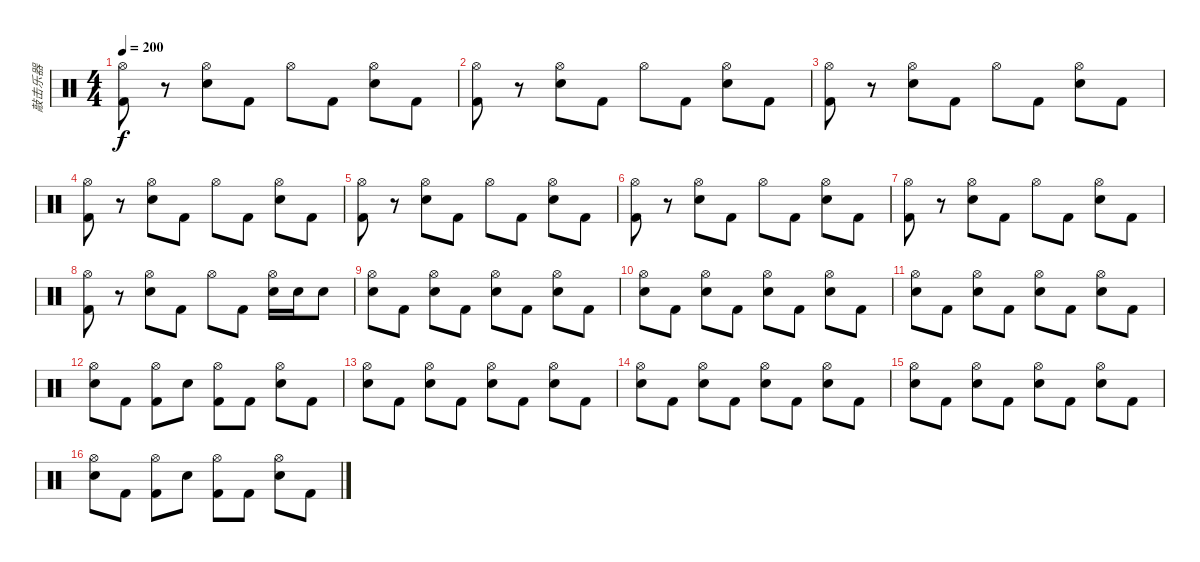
\track ("敲击乐器" "敲击乐器") {instrument percussion}
\staff {score}
\articulation defaults
\ts (4 4)
\tempo 200
\clef neutral
\ks c
("Hi-Hat (open)" "Kick (hit) 2").8{dy f} r.8 ("Hi-Hat (open)" "Electric Snare (hit)").8 "Kick (hit) 2".8 "Hi-Hat (open)".8 "Kick (hit) 2".8 ("Hi-Hat (open)" "Electric Snare (hit)").8 "Kick (hit) 2".8 |
("Hi-Hat (open)" "Kick (hit) 2").8 r.8 ("Hi-Hat (open)" "Electric Snare (hit)").8 "Kick (hit) 2".8 "Hi-Hat (open)".8 "Kick (hit) 2".8 ("Hi-Hat (open)" "Electric Snare (hit)").8 "Kick (hit) 2".8 |
("Hi-Hat (open)" "Kick (hit) 2").8 r.8 ("Hi-Hat (open)" "Electric Snare (hit)").8 "Kick (hit) 2".8 "Hi-Hat (open)".8 "Kick (hit) 2".8 ("Hi-Hat (open)" "Electric Snare (hit)").8 "Kick (hit) 2".8 |
("Hi-Hat (open)" "Kick (hit) 2").8 r.8 ("Hi-Hat (open)" "Electric Snare (hit)").8 "Kick (hit) 2".8 "Hi-Hat (open)".8 "Kick (hit) 2".8 ("Hi-Hat (open)" "Electric Snare (hit)").8 "Kick (hit) 2".8 |
("Hi-Hat (open)" "Kick (hit) 2").8 r.8 ("Hi-Hat (open)" "Electric Snare (hit)").8 "Kick (hit) 2".8 "Hi-Hat (open)".8 "Kick (hit) 2".8 ("Hi-Hat (open)" "Electric Snare (hit)").8 "Kick (hit) 2".8 |
("Hi-Hat (open)" "Kick (hit) 2").8 r.8 ("Hi-Hat (open)" "Electric Snare (hit)").8 "Kick (hit) 2".8 "Hi-Hat (open)".8 "Kick (hit) 2".8 ("Hi-Hat (open)" "Electric Snare (hit)").8 "Kick (hit) 2".8 |
("Hi-Hat (open)" "Kick (hit) 2").8 r.8 ("Hi-Hat (open)" "Electric Snare (hit)").8 "Kick (hit) 2".8 "Hi-Hat (open)".8 "Kick (hit) 2".8 ("Hi-Hat (open)" "Electric Snare (hit)").8 "Kick (hit) 2".8 |
("Hi-Hat (open)" "Kick (hit) 2").8 r.8 ("Hi-Hat (open)" "Electric Snare (hit)").8 "Kick (hit) 2".8 "Hi-Hat (open)".8 "Kick (hit) 2".8 ("Hi-Hat (open)" "Electric Snare (hit)").16 "Electric Snare (hit)".16 "Electric Snare (hit)".8 |
("Hi-Hat (open)" "Electric Snare (hit)").8 "Kick (hit) 2".8 ("Hi-Hat (open)" "Electric Snare (hit)").8 "Kick (hit) 2".8 ("Hi-Hat (open)" "Electric Snare (hit)").8 "Kick (hit) 2".8 ("Hi-Hat (open)" "Electric Snare (hit)").8 "Kick (hit) 2".8 |
("Hi-Hat (open)" "Electric Snare (hit)").8 "Kick (hit) 2".8 ("Hi-Hat (open)" "Electric Snare (hit)").8 "Kick (hit) 2".8 ("Hi-Hat (open)" "Electric Snare (hit)").8 "Kick (hit) 2".8 ("Hi-Hat (open)" "Electric Snare (hit)").8 "Kick (hit) 2".8 |
("Hi-Hat (open)" "Electric Snare (hit)").8 "Kick (hit) 2".8 ("Hi-Hat (open)" "Electric Snare (hit)").8 "Kick (hit) 2".8 ("Hi-Hat (open)" "Electric Snare (hit)").8 "Kick (hit) 2".8 ("Hi-Hat (open)" "Electric Snare (hit)").8 "Kick (hit) 2".8 |
("Hi-Hat (open)" "Electric Snare (hit)").8 "Kick (hit) 2".8 ("Hi-Hat (open)" "Kick (hit) 2").8 "Electric Snare (hit)".8 ("Hi-Hat (open)" "Kick (hit) 2").8 "Kick (hit) 2".8 ("Hi-Hat (open)" "Electric Snare (hit)").8 "Kick (hit) 2".8 |
("Hi-Hat (open)" "Electric Snare (hit)").8 "Kick (hit) 2".8 ("Hi-Hat (open)" "Electric Snare (hit)").8 "Kick (hit) 2".8 ("Hi-Hat (open)" "Electric Snare (hit)").8 "Kick (hit) 2".8 ("Hi-Hat (open)" "Electric Snare (hit)").8 "Kick (hit) 2".8 |
("Hi-Hat (open)" "Electric Snare (hit)").8 "Kick (hit) 2".8 ("Hi-Hat (open)" "Electric Snare (hit)").8 "Kick (hit) 2".8 ("Hi-Hat (open)" "Electric Snare (hit)").8 "Kick (hit) 2".8 ("Hi-Hat (open)" "Electric Snare (hit)").8 "Kick (hit) 2".8 |
("Hi-Hat (open)" "Electric Snare (hit)").8 "Kick (hit) 2".8 ("Hi-Hat (open)" "Electric Snare (hit)").8 "Kick (hit) 2".8 ("Hi-Hat (open)" "Electric Snare (hit)").8 "Kick (hit) 2".8 ("Hi-Hat (open)" "Electric Snare (hit)").8 "Kick (hit) 2".8 |
("Hi-Hat (open)" "Electric Snare (hit)").8 "Kick (hit) 2".8 ("Hi-Hat (open)" "Kick (hit) 2").8 "Electric Snare (hit)".8 ("Hi-Hat (open)" "Kick (hit) 2").8 "Kick (hit) 2".8 ("Hi-Hat (open)" "Electric Snare (hit)").8 "Kick (hit) 2".8
